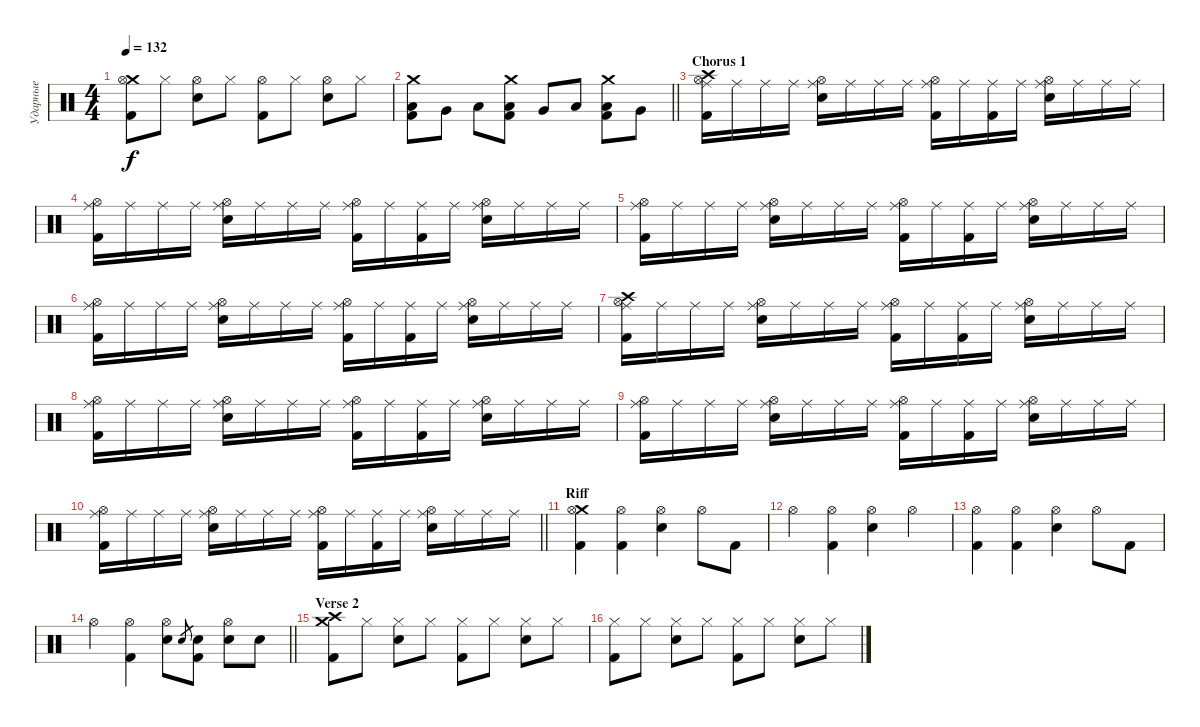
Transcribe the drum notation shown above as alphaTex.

\track ("Ударные" "Ударные") {instrument percussion}
\staff {score}
\articulation defaults
\ts (4 4)
\tempo 132
\clef neutral
\ks c
("Crash medium (hit)" "Hi-Hat (open)" "Kick (hit) 2").8{dy f} "Hi-Hat (closed)".8 ("Hi-Hat (open)" "Snare (hit) 2").8 "Hi-Hat (closed)".8 ("Hi-Hat (open)" "Kick (hit) 2").8 "Hi-Hat (closed)".8 ("Hi-Hat (open)" "Snare (hit) 2").8 "Hi-Hat (closed)".8 |
\barLineRight lightlight
("Crash medium (hit)" "Low Tom (hit)" "Kick (hit) 2").8 "Very Low Tom (hit)".8 "Low Floor Tom (hit)".8 ("Crash medium (hit)" "Low Tom (hit)" "Kick (hit) 2").8 "Very Low Tom (hit)".8 "Low Floor Tom (hit)".8 ("Crash medium (hit)" "Low Tom (hit)" "Kick (hit) 2").8 "Very Low Tom (hit)".8 |
\section ("" "Chorus 1")
("Crash high (hit)" "Hi-Hat (open)" "Ride (middle)" "Kick (hit) 2").16 "Ride (middle)".16 "Ride (middle)".16 "Ride (middle)".16 ("Hi-Hat (open)" "Ride (middle)" "Snare (hit) 2").16 "Ride (middle)".16 "Ride (middle)".16 "Ride (middle)".16 ("Hi-Hat (open)" "Ride (middle)" "Kick (hit) 2").16 "Ride (middle)".16 ("Ride (middle)" "Kick (hit) 2").16 "Ride (middle)".16 ("Hi-Hat (open)" "Ride (middle)" "Snare (hit) 2").16 "Ride (middle)".16 "Ride (middle)".16 "Ride (middle)".16 |
("Hi-Hat (open)" "Ride (middle)" "Kick (hit) 2").16 "Ride (middle)".16 "Ride (middle)".16 "Ride (middle)".16 ("Hi-Hat (open)" "Ride (middle)" "Snare (hit) 2").16 "Ride (middle)".16 "Ride (middle)".16 "Ride (middle)".16 ("Hi-Hat (open)" "Ride (middle)" "Kick (hit) 2").16 "Ride (middle)".16 ("Ride (middle)" "Kick (hit) 2").16 "Ride (middle)".16 ("Hi-Hat (open)" "Ride (middle)" "Snare (hit) 2").16 "Ride (middle)".16 "Ride (middle)".16 "Ride (middle)".16 |
("Hi-Hat (open)" "Ride (middle)" "Kick (hit) 2").16 "Ride (middle)".16 "Ride (middle)".16 "Ride (middle)".16 ("Hi-Hat (open)" "Ride (middle)" "Snare (hit) 2").16 "Ride (middle)".16 "Ride (middle)".16 "Ride (middle)".16 ("Hi-Hat (open)" "Ride (middle)" "Kick (hit) 2").16 "Ride (middle)".16 ("Ride (middle)" "Kick (hit) 2").16 "Ride (middle)".16 ("Hi-Hat (open)" "Ride (middle)" "Snare (hit) 2").16 "Ride (middle)".16 "Ride (middle)".16 "Ride (middle)".16 |
("Hi-Hat (open)" "Ride (middle)" "Kick (hit) 2").16 "Ride (middle)".16 "Ride (middle)".16 "Ride (middle)".16 ("Hi-Hat (open)" "Ride (middle)" "Snare (hit) 2").16 "Ride (middle)".16 "Ride (middle)".16 "Ride (middle)".16 ("Hi-Hat (open)" "Ride (middle)" "Kick (hit) 2").16 "Ride (middle)".16 ("Ride (middle)" "Kick (hit) 2").16 "Ride (middle)".16 ("Hi-Hat (open)" "Ride (middle)" "Snare (hit) 2").16 "Ride (middle)".16 "Ride (middle)".16 "Ride (middle)".16 |
("Crash high (hit)" "Hi-Hat (open)" "Ride (middle)" "Kick (hit) 2").16 "Ride (middle)".16 "Ride (middle)".16 "Ride (middle)".16 ("Hi-Hat (open)" "Ride (middle)" "Snare (hit) 2").16 "Ride (middle)".16 "Ride (middle)".16 "Ride (middle)".16 ("Hi-Hat (open)" "Ride (middle)" "Kick (hit) 2").16 "Ride (middle)".16 ("Ride (middle)" "Kick (hit) 2").16 "Ride (middle)".16 ("Hi-Hat (open)" "Ride (middle)" "Snare (hit) 2").16 "Ride (middle)".16 "Ride (middle)".16 "Ride (middle)".16 |
("Hi-Hat (open)" "Ride (middle)" "Kick (hit) 2").16 "Ride (middle)".16 "Ride (middle)".16 "Ride (middle)".16 ("Hi-Hat (open)" "Ride (middle)" "Snare (hit) 2").16 "Ride (middle)".16 "Ride (middle)".16 "Ride (middle)".16 ("Hi-Hat (open)" "Ride (middle)" "Kick (hit) 2").16 "Ride (middle)".16 ("Ride (middle)" "Kick (hit) 2").16 "Ride (middle)".16 ("Hi-Hat (open)" "Ride (middle)" "Snare (hit) 2").16 "Ride (middle)".16 "Ride (middle)".16 "Ride (middle)".16 |
("Hi-Hat (open)" "Ride (middle)" "Kick (hit) 2").16 "Ride (middle)".16 "Ride (middle)".16 "Ride (middle)".16 ("Hi-Hat (open)" "Ride (middle)" "Snare (hit) 2").16 "Ride (middle)".16 "Ride (middle)".16 "Ride (middle)".16 ("Hi-Hat (open)" "Ride (middle)" "Kick (hit) 2").16 "Ride (middle)".16 ("Ride (middle)" "Kick (hit) 2").16 "Ride (middle)".16 ("Hi-Hat (open)" "Ride (middle)" "Snare (hit) 2").16 "Ride (middle)".16 "Ride (middle)".16 "Ride (middle)".16 |
\barLineRight lightlight
("Hi-Hat (open)" "Ride (middle)" "Kick (hit) 2").16 "Ride (middle)".16 "Ride (middle)".16 "Ride (middle)".16 ("Hi-Hat (open)" "Ride (middle)" "Snare (hit) 2").16 "Ride (middle)".16 "Ride (middle)".16 "Ride (middle)".16 ("Hi-Hat (open)" "Ride (middle)" "Kick (hit) 2").16 "Ride (middle)".16 ("Ride (middle)" "Kick (hit) 2").16 "Ride (middle)".16 ("Hi-Hat (open)" "Ride (middle)" "Snare (hit) 2").16 "Ride (middle)".16 "Ride (middle)".16 "Ride (middle)".16 |
\section ("" "Riff")
("Crash medium (hit)" "Hi-Hat (open)" "Kick (hit) 2").4 ("Hi-Hat (open)" "Kick (hit) 2").4 ("Hi-Hat (open)" "Snare (hit) 2").4 "Hi-Hat (open)".8 "Kick (hit) 2".8 |
"Hi-Hat (open)".4 ("Hi-Hat (open)" "Kick (hit) 2").4 ("Hi-Hat (open)" "Snare (hit) 2").4 "Hi-Hat (open)".4 |
("Hi-Hat (open)" "Kick (hit) 2").4 ("Hi-Hat (open)" "Kick (hit) 2").4 ("Hi-Hat (open)" "Snare (hit) 2").4 "Hi-Hat (open)".8 "Kick (hit) 2".8 |
\barLineRight lightlight "Hi-Hat (open)".4
("Hi-Hat (open)" "Kick (hit) 2").4 ("Hi-Hat (open)" "Snare (hit) 2").8 "Snare (hit) 2".8{gr} ("Snare (hit) 2" "Kick (hit) 2").8 ("Hi-Hat (open)" "Snare (hit) 2").8 "Snare (hit) 2".8 |
\section ("" "Verse 2")
("Crash medium (hit)" "Crash high (hit)" "Kick (hit) 2").8 "Hi-Hat (closed)".8 ("Hi-Hat (closed)" "Snare (hit) 2").8 "Hi-Hat (closed)".8 ("Hi-Hat (closed)" "Kick (hit) 2").8 "Hi-Hat (closed)".8 ("Hi-Hat (closed)" "Snare (hit) 2").8 "Hi-Hat (closed)".8 |
("Hi-Hat (closed)" "Kick (hit) 2").8 "Hi-Hat (closed)".8 ("Hi-Hat (closed)" "Snare (hit) 2").8 "Hi-Hat (closed)".8 ("Hi-Hat (closed)" "Kick (hit) 2").8 "Hi-Hat (closed)".8 ("Hi-Hat (closed)" "Snare (hit) 2").8 "Hi-Hat (closed)".8
